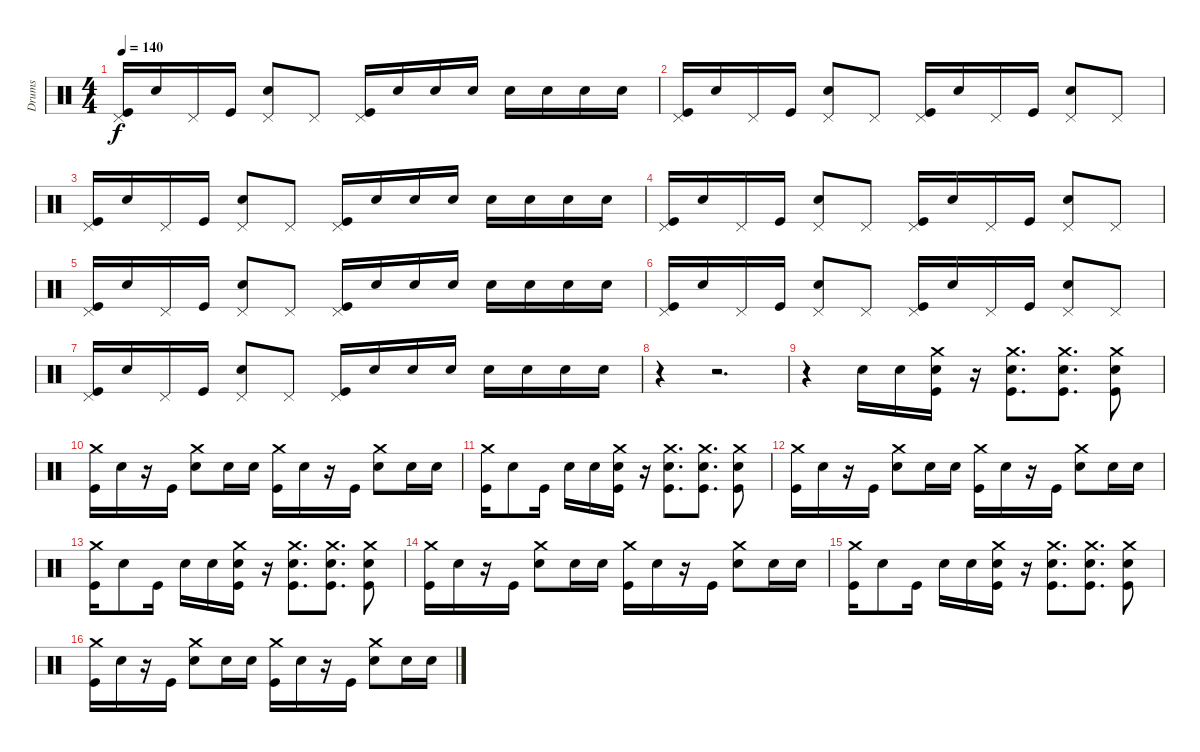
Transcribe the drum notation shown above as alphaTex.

\track ("Drums" "Drums") {instrument percussion}
\staff {score}
\articulation defaults
\ts (4 4)
\tempo 140
\clef neutral
\ks c
("Kick (hit)" "Pedal Hi-Hat (hit)").16{dy f} "Snare (hit) 2".16 "Pedal Hi-Hat (hit)".16 "Kick (hit)".16 ("Snare (hit) 2" "Pedal Hi-Hat (hit)").8 "Pedal Hi-Hat (hit)".8 ("Kick (hit)" "Pedal Hi-Hat (hit)").16 "Snare (hit) 2".16 "Snare (hit) 2".16 "Snare (hit) 2".16 "Snare (hit) 2".16 "Snare (hit) 2".16 "Snare (hit) 2".16 "Snare (hit) 2".16 |
("Kick (hit)" "Pedal Hi-Hat (hit)").16 "Snare (hit) 2".16 "Pedal Hi-Hat (hit)".16 "Kick (hit)".16 ("Snare (hit) 2" "Pedal Hi-Hat (hit)").8 "Pedal Hi-Hat (hit)".8 ("Kick (hit)" "Pedal Hi-Hat (hit)").16 "Snare (hit) 2".16 "Pedal Hi-Hat (hit)".16 "Kick (hit)".16 ("Snare (hit) 2" "Pedal Hi-Hat (hit)").8 "Pedal Hi-Hat (hit)".8 |
("Kick (hit)" "Pedal Hi-Hat (hit)").16 "Snare (hit) 2".16 "Pedal Hi-Hat (hit)".16 "Kick (hit)".16 ("Snare (hit) 2" "Pedal Hi-Hat (hit)").8 "Pedal Hi-Hat (hit)".8 ("Kick (hit)" "Pedal Hi-Hat (hit)").16 "Snare (hit) 2".16 "Snare (hit) 2".16 "Snare (hit) 2".16 "Snare (hit) 2".16 "Snare (hit) 2".16 "Snare (hit) 2".16 "Snare (hit) 2".16 |
("Kick (hit)" "Pedal Hi-Hat (hit)").16 "Snare (hit) 2".16 "Pedal Hi-Hat (hit)".16 "Kick (hit)".16 ("Snare (hit) 2" "Pedal Hi-Hat (hit)").8 "Pedal Hi-Hat (hit)".8 ("Kick (hit)" "Pedal Hi-Hat (hit)").16 "Snare (hit) 2".16 "Pedal Hi-Hat (hit)".16 "Kick (hit)".16 ("Snare (hit) 2" "Pedal Hi-Hat (hit)").8 "Pedal Hi-Hat (hit)".8 |
("Kick (hit)" "Pedal Hi-Hat (hit)").16 "Snare (hit) 2".16 "Pedal Hi-Hat (hit)".16 "Kick (hit)".16 ("Snare (hit) 2" "Pedal Hi-Hat (hit)").8 "Pedal Hi-Hat (hit)".8 ("Kick (hit)" "Pedal Hi-Hat (hit)").16 "Snare (hit) 2".16 "Snare (hit) 2".16 "Snare (hit) 2".16 "Snare (hit) 2".16 "Snare (hit) 2".16 "Snare (hit) 2".16 "Snare (hit) 2".16 |
("Kick (hit)" "Pedal Hi-Hat (hit)").16 "Snare (hit) 2".16 "Pedal Hi-Hat (hit)".16 "Kick (hit)".16 ("Snare (hit) 2" "Pedal Hi-Hat (hit)").8 "Pedal Hi-Hat (hit)".8 ("Kick (hit)" "Pedal Hi-Hat (hit)").16 "Snare (hit) 2".16 "Pedal Hi-Hat (hit)".16 "Kick (hit)".16 ("Snare (hit) 2" "Pedal Hi-Hat (hit)").8 "Pedal Hi-Hat (hit)".8 |
("Kick (hit)" "Pedal Hi-Hat (hit)").16 "Snare (hit) 2".16 "Pedal Hi-Hat (hit)".16 "Kick (hit)".16 ("Snare (hit) 2" "Pedal Hi-Hat (hit)").8 "Pedal Hi-Hat (hit)".8 ("Kick (hit)" "Pedal Hi-Hat (hit)").16 "Snare (hit) 2".16 "Snare (hit) 2".16 "Snare (hit) 2".16 "Snare (hit) 2".16 "Snare (hit) 2".16 "Snare (hit) 2".16 "Snare (hit) 2".16 |
r.4 r.2{d} |
r.4 "Snare (hit) 2".16 "Snare (hit) 2".16 ("Kick (hit)" "Snare (hit) 2" "Crash medium (hit)").16 r.16 ("Kick (hit)" "Snare (hit) 2" "Crash medium (hit)").8{d} ("Kick (hit)" "Snare (hit) 2" "Crash medium (hit)").8{d} ("Kick (hit)" "Snare (hit) 2" "Crash medium (hit)").8 |
("Kick (hit)" "Crash medium (hit)").16 "Snare (hit) 2".16 r.16 "Kick (hit)".16 ("Snare (hit) 2" "Crash medium (hit)").8 "Snare (hit) 2".16 "Snare (hit) 2".16 ("Kick (hit)" "Crash medium (hit)").16 "Snare (hit) 2".16 r.16 "Kick (hit)".16 ("Snare (hit) 2" "Crash medium (hit)").8 "Snare (hit) 2".16 "Snare (hit) 2".16 |
("Kick (hit)" "Crash medium (hit)").16 "Snare (hit) 2".8 "Kick (hit)".16 "Snare (hit) 2".16 "Snare (hit) 2".16 ("Kick (hit)" "Snare (hit) 2" "Crash medium (hit)").16 r.16 ("Kick (hit)" "Snare (hit) 2" "Crash medium (hit)").8{d} ("Kick (hit)" "Snare (hit) 2" "Crash medium (hit)").8{d} ("Kick (hit)" "Snare (hit) 2" "Crash medium (hit)").8 |
("Kick (hit)" "Crash medium (hit)").16 "Snare (hit) 2".16 r.16 "Kick (hit)".16 ("Snare (hit) 2" "Crash medium (hit)").8 "Snare (hit) 2".16 "Snare (hit) 2".16 ("Kick (hit)" "Crash medium (hit)").16 "Snare (hit) 2".16 r.16 "Kick (hit)".16 ("Snare (hit) 2" "Crash medium (hit)").8 "Snare (hit) 2".16 "Snare (hit) 2".16 |
("Kick (hit)" "Crash medium (hit)").16 "Snare (hit) 2".8 "Kick (hit)".16 "Snare (hit) 2".16 "Snare (hit) 2".16 ("Kick (hit)" "Snare (hit) 2" "Crash medium (hit)").16 r.16 ("Kick (hit)" "Snare (hit) 2" "Crash medium (hit)").8{d} ("Kick (hit)" "Snare (hit) 2" "Crash medium (hit)").8{d} ("Kick (hit)" "Snare (hit) 2" "Crash medium (hit)").8 |
("Kick (hit)" "Crash medium (hit)").16 "Snare (hit) 2".16 r.16 "Kick (hit)".16 ("Snare (hit) 2" "Crash medium (hit)").8 "Snare (hit) 2".16 "Snare (hit) 2".16 ("Kick (hit)" "Crash medium (hit)").16 "Snare (hit) 2".16 r.16 "Kick (hit)".16 ("Snare (hit) 2" "Crash medium (hit)").8 "Snare (hit) 2".16 "Snare (hit) 2".16 |
("Kick (hit)" "Crash medium (hit)").16 "Snare (hit) 2".8 "Kick (hit)".16 "Snare (hit) 2".16 "Snare (hit) 2".16 ("Kick (hit)" "Snare (hit) 2" "Crash medium (hit)").16 r.16 ("Kick (hit)" "Snare (hit) 2" "Crash medium (hit)").8{d} ("Kick (hit)" "Snare (hit) 2" "Crash medium (hit)").8{d} ("Kick (hit)" "Snare (hit) 2" "Crash medium (hit)").8 |
("Kick (hit)" "Crash medium (hit)").16 "Snare (hit) 2".16 r.16 "Kick (hit)".16 ("Snare (hit) 2" "Crash medium (hit)").8 "Snare (hit) 2".16 "Snare (hit) 2".16 ("Kick (hit)" "Crash medium (hit)").16 "Snare (hit) 2".16 r.16 "Kick (hit)".16 ("Snare (hit) 2" "Crash medium (hit)").8 "Snare (hit) 2".16 "Snare (hit) 2".16
